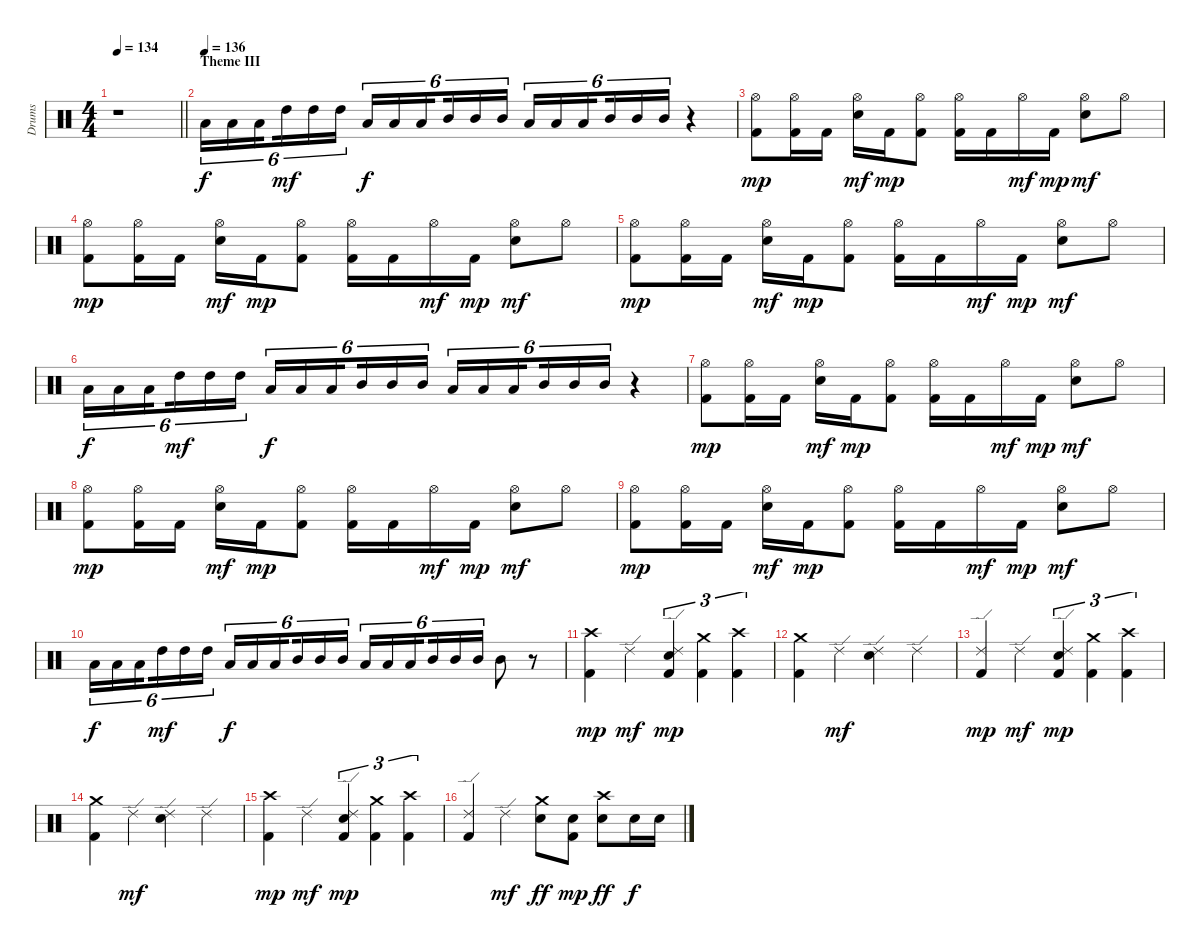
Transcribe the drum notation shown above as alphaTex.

\track ("Drums" "Drums") {instrument percussion}
\staff {score}
\articulation defaults
\ts (4 4)
\tempo 134
\clef neutral
\barLineRight lightlight
\ks c
r.1{dy mp} |
\section ("" "Theme III")
\tempo (136)
"Low Tom (hit)".16{tu (6 4) dy f} "Low Tom (hit)".16{tu (6 4)} "Low Tom (hit)".16{tu (6 4) beam splitsecondary} "High Tom (hit)".16{tu (6 4) dy mf} "High Tom (hit)".16{tu (6 4)} "High Tom (hit)".16{tu (6 4)} "Low Tom (hit)".16{tu (6 4) dy f} "Low Tom (hit)".16{tu (6 4)} "Low Tom (hit)".16{tu (6 4) beam splitsecondary} "Mid Tom (hit)".16{tu (6 4)} "Mid Tom (hit)".16{tu (6 4)} "Mid Tom (hit)".16{tu (6 4)} "Low Tom (hit)".16{tu (6 4)} "Low Tom (hit)".16{tu (6 4)} "Low Tom (hit)".16{tu (6 4) beam splitsecondary} "Mid Tom (hit)".16{tu (6 4)} "Mid Tom (hit)".16{tu (6 4)} "Mid Tom (hit)".16{tu (6 4)} r.4 |
("Hi-Hat (open)" "Kick (hit) 2").8{dy mp} ("Hi-Hat (open)" "Kick (hit) 2").16 "Kick (hit) 2".16 ("Hi-Hat (open)" "Electric Snare (hit)").16{dy mf} "Kick (hit) 2".16{dy mp} ("Hi-Hat (open)" "Kick (hit) 2").8 ("Hi-Hat (open)" "Kick (hit) 2").16 "Kick (hit) 2".16 "Hi-Hat (open)".16{dy mf} "Kick (hit) 2".16{dy mp} ("Hi-Hat (open)" "Electric Snare (hit)").8{dy mf} "Hi-Hat (open)".8 |
("Hi-Hat (open)" "Kick (hit) 2").8{dy mp} ("Hi-Hat (open)" "Kick (hit) 2").16 "Kick (hit) 2".16 ("Hi-Hat (open)" "Electric Snare (hit)").16{dy mf} "Kick (hit) 2".16{dy mp} ("Hi-Hat (open)" "Kick (hit) 2").8 ("Hi-Hat (open)" "Kick (hit) 2").16 "Kick (hit) 2".16 "Hi-Hat (open)".16{dy mf} "Kick (hit) 2".16{dy mp} ("Hi-Hat (open)" "Electric Snare (hit)").8{dy mf} "Hi-Hat (open)".8 |
("Hi-Hat (open)" "Kick (hit) 2").8{dy mp} ("Hi-Hat (open)" "Kick (hit) 2").16 "Kick (hit) 2".16 ("Hi-Hat (open)" "Electric Snare (hit)").16{dy mf} "Kick (hit) 2".16{dy mp} ("Hi-Hat (open)" "Kick (hit) 2").8 ("Hi-Hat (open)" "Kick (hit) 2").16 "Kick (hit) 2".16 "Hi-Hat (open)".16{dy mf} "Kick (hit) 2".16{dy mp} ("Hi-Hat (open)" "Electric Snare (hit)").8{dy mf} "Hi-Hat (open)".8 |
"Low Tom (hit)".16{tu (6 4) dy f} "Low Tom (hit)".16{tu (6 4)} "Low Tom (hit)".16{tu (6 4) beam splitsecondary} "High Tom (hit)".16{tu (6 4) dy mf} "High Tom (hit)".16{tu (6 4)} "High Tom (hit)".16{tu (6 4)} "Low Tom (hit)".16{tu (6 4) dy f} "Low Tom (hit)".16{tu (6 4)} "Low Tom (hit)".16{tu (6 4) beam splitsecondary} "Mid Tom (hit)".16{tu (6 4)} "Mid Tom (hit)".16{tu (6 4)} "Mid Tom (hit)".16{tu (6 4)} "Low Tom (hit)".16{tu (6 4)} "Low Tom (hit)".16{tu (6 4)} "Low Tom (hit)".16{tu (6 4) beam splitsecondary} "Mid Tom (hit)".16{tu (6 4)} "Mid Tom (hit)".16{tu (6 4)} "Mid Tom (hit)".16{tu (6 4)} r.4 |
("Hi-Hat (open)" "Kick (hit) 2").8{dy mp} ("Hi-Hat (open)" "Kick (hit) 2").16 "Kick (hit) 2".16 ("Hi-Hat (open)" "Electric Snare (hit)").16{dy mf} "Kick (hit) 2".16{dy mp} ("Hi-Hat (open)" "Kick (hit) 2").8 ("Hi-Hat (open)" "Kick (hit) 2").16 "Kick (hit) 2".16 "Hi-Hat (open)".16{dy mf} "Kick (hit) 2".16{dy mp} ("Hi-Hat (open)" "Electric Snare (hit)").8{dy mf} "Hi-Hat (open)".8 |
("Hi-Hat (open)" "Kick (hit) 2").8{dy mp} ("Hi-Hat (open)" "Kick (hit) 2").16 "Kick (hit) 2".16 ("Hi-Hat (open)" "Electric Snare (hit)").16{dy mf} "Kick (hit) 2".16{dy mp} ("Hi-Hat (open)" "Kick (hit) 2").8 ("Hi-Hat (open)" "Kick (hit) 2").16 "Kick (hit) 2".16 "Hi-Hat (open)".16{dy mf} "Kick (hit) 2".16{dy mp} ("Hi-Hat (open)" "Electric Snare (hit)").8{dy mf} "Hi-Hat (open)".8 |
("Hi-Hat (open)" "Kick (hit) 2").8{dy mp} ("Hi-Hat (open)" "Kick (hit) 2").16 "Kick (hit) 2".16 ("Hi-Hat (open)" "Electric Snare (hit)").16{dy mf} "Kick (hit) 2".16{dy mp} ("Hi-Hat (open)" "Kick (hit) 2").8 ("Hi-Hat (open)" "Kick (hit) 2").16 "Kick (hit) 2".16 "Hi-Hat (open)".16{dy mf} "Kick (hit) 2".16{dy mp} ("Hi-Hat (open)" "Electric Snare (hit)").8{dy mf} "Hi-Hat (open)".8 |
"Low Tom (hit)".16{tu (6 4) dy f} "Low Tom (hit)".16{tu (6 4)} "Low Tom (hit)".16{tu (6 4) beam splitsecondary} "High Tom (hit)".16{tu (6 4) dy mf} "High Tom (hit)".16{tu (6 4)} "High Tom (hit)".16{tu (6 4)} "Low Tom (hit)".16{tu (6 4) dy f} "Low Tom (hit)".16{tu (6 4)} "Low Tom (hit)".16{tu (6 4) beam splitsecondary} "Mid Tom (hit)".16{tu (6 4)} "Mid Tom (hit)".16{tu (6 4)} "Mid Tom (hit)".16{tu (6 4)} "Low Tom (hit)".16{tu (6 4)} "Low Tom (hit)".16{tu (6 4)} "Low Tom (hit)".16{tu (6 4) beam splitsecondary} "Mid Tom (hit)".16{tu (6 4)} "Mid Tom (hit)".16{tu (6 4)} "Mid Tom (hit)".16{tu (6 4)} "Mid Tom (hit)".8 r.8 |
("Crash high (hit)" "Kick (hit) 2").4{dy mp} "Ride (edge) 2".4{dy mf} ("Ride (edge) 2" "Electric Snare (hit)" "Kick (hit) 2").4{tu (3 2) dy mp} ("Crash medium (hit)" "Kick (hit) 2").4{tu (3 2)} ("Crash high (hit)" "Kick (hit) 2").4{tu (3 2)} |
("Crash medium (hit)" "Kick (hit) 2").4 "Ride (edge) 2".4{dy mf} ("Ride (edge) 2" "Electric Snare (hit)").4 "Ride (edge) 2".4 |
("Ride (edge) 2" "Kick (hit) 2").4{dy mp} "Ride (edge) 2".4{dy mf} ("Ride (edge) 2" "Electric Snare (hit)" "Kick (hit) 2").4{tu (3 2) dy mp} ("Crash medium (hit)" "Kick (hit) 2").4{tu (3 2)} ("Crash high (hit)" "Kick (hit) 2").4{tu (3 2)} |
("Crash medium (hit)" "Kick (hit) 2").4 "Ride (edge) 2".4{dy mf} ("Ride (edge) 2" "Electric Snare (hit)").4 "Ride (edge) 2".4 |
("Crash high (hit)" "Kick (hit) 2").4{dy mp} "Ride (edge) 2".4{dy mf} ("Ride (edge) 2" "Electric Snare (hit)" "Kick (hit) 2").4{tu (3 2) dy mp} ("Crash medium (hit)" "Kick (hit) 2").4{tu (3 2)} ("Crash high (hit)" "Kick (hit) 2").4{tu (3 2)} |
("Ride (edge) 2" "Kick (hit) 2").4 "Ride (edge) 2".4{dy mf} ("Crash medium (hit)" "Snare (hit) 2").8{dy ff} ("Snare (hit) 2" "Kick (hit) 2").8{dy mp} ("Crash high (hit)" "Snare (hit) 2").8{dy ff} "Electric Snare (hit)".16{dy f} "Electric Snare (hit)".16
